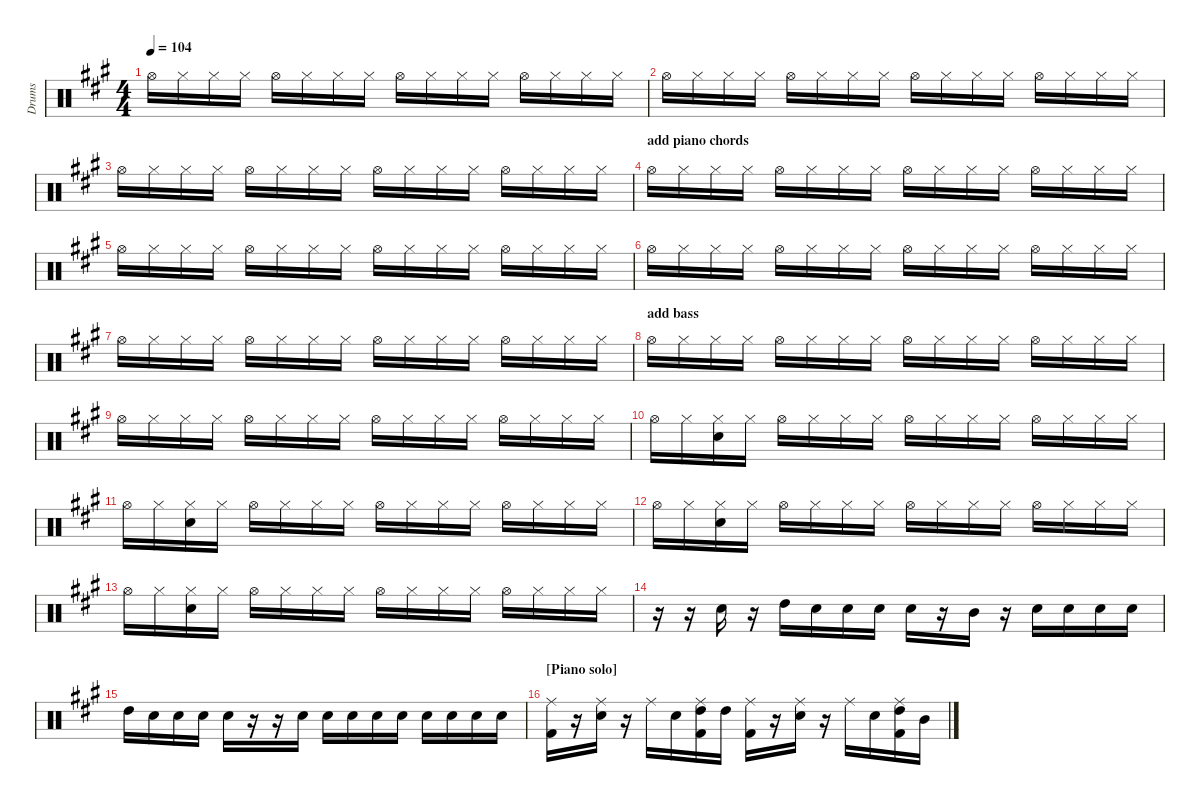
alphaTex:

\hideDynamics
\bracketExtendMode nobrackets
\otherSystemsTrackNameOrientation horizontal
\track ("Drumkit" "Drums") {instrument percussion}
\staff {score}
\articulation defaults
\ts (4 4)
\tempo 104
\clef neutral
\ks a "Hi-Hat (open)"{acc forcenatural}.16{dy f beam Down} "Hi-Hat (closed)"{acc forcenatural}.16{beam Down} "Hi-Hat (closed)"{acc forcenatural}.16{beam Down} "Hi-Hat (closed)"{acc forcenatural}.16{beam Down} "Hi-Hat (open)"{acc forcenatural}.16{beam Down} "Hi-Hat (closed)"{acc forcenatural}.16{beam Down} "Hi-Hat (closed)"{acc forcenatural}.16{beam Down} "Hi-Hat (closed)"{acc forcenatural}.16{beam Down} "Hi-Hat (open)"{acc forcenatural}.16{beam Down} "Hi-Hat (closed)"{acc forcenatural}.16{beam Down} "Hi-Hat (closed)"{acc forcenatural}.16{beam Down} "Hi-Hat (closed)"{acc forcenatural}.16{beam Down} "Hi-Hat (open)"{acc forcenatural}.16{beam Down} "Hi-Hat (closed)"{acc forcenatural}.16{beam Down} "Hi-Hat (closed)"{acc forcenatural}.16{beam Down} "Hi-Hat (closed)"{acc forcenatural}.16{beam Down}
|
"Hi-Hat (open)"{acc forcenatural}.16{beam Down} "Hi-Hat (closed)"{acc forcenatural}.16{beam Down} "Hi-Hat (closed)"{acc forcenatural}.16{beam Down} "Hi-Hat (closed)"{acc forcenatural}.16{beam Down} "Hi-Hat (open)"{acc forcenatural}.16{beam Down} "Hi-Hat (closed)"{acc forcenatural}.16{beam Down} "Hi-Hat (closed)"{acc forcenatural}.16{beam Down} "Hi-Hat (closed)"{acc forcenatural}.16{beam Down} "Hi-Hat (open)"{acc forcenatural}.16{beam Down} "Hi-Hat (closed)"{acc forcenatural}.16{beam Down} "Hi-Hat (closed)"{acc forcenatural}.16{beam Down} "Hi-Hat (closed)"{acc forcenatural}.16{beam Down} "Hi-Hat (open)"{acc forcenatural}.16{beam Down} "Hi-Hat (closed)"{acc forcenatural}.16{beam Down} "Hi-Hat (closed)"{acc forcenatural}.16{beam Down} "Hi-Hat (closed)"{acc forcenatural}.16{beam Down} |
"Hi-Hat (open)"{acc forcenatural}.16{beam Down} "Hi-Hat (closed)"{acc forcenatural}.16{beam Down} "Hi-Hat (closed)"{acc forcenatural}.16{beam Down} "Hi-Hat (closed)"{acc forcenatural}.16{beam Down} "Hi-Hat (open)"{acc forcenatural}.16{beam Down} "Hi-Hat (closed)"{acc forcenatural}.16{beam Down} "Hi-Hat (closed)"{acc forcenatural}.16{beam Down} "Hi-Hat (closed)"{acc forcenatural}.16{beam Down} "Hi-Hat (open)"{acc forcenatural}.16{beam Down} "Hi-Hat (closed)"{acc forcenatural}.16{beam Down} "Hi-Hat (closed)"{acc forcenatural}.16{beam Down} "Hi-Hat (closed)"{acc forcenatural}.16{beam Down} "Hi-Hat (open)"{acc forcenatural}.16{beam Down} "Hi-Hat (closed)"{acc forcenatural}.16{beam Down} "Hi-Hat (closed)"{acc forcenatural}.16{beam Down} "Hi-Hat (closed)"{acc forcenatural}.16{beam Down} |
\section ("" "add piano chords")
"Hi-Hat (open)"{acc forcenatural}.16{beam Down} "Hi-Hat (closed)"{acc forcenatural}.16{beam Down} "Hi-Hat (closed)"{acc forcenatural}.16{beam Down} "Hi-Hat (closed)"{acc forcenatural}.16{beam Down} "Hi-Hat (open)"{acc forcenatural}.16{beam Down} "Hi-Hat (closed)"{acc forcenatural}.16{beam Down} "Hi-Hat (closed)"{acc forcenatural}.16{beam Down} "Hi-Hat (closed)"{acc forcenatural}.16{beam Down} "Hi-Hat (open)"{acc forcenatural}.16{beam Down} "Hi-Hat (closed)"{acc forcenatural}.16{beam Down} "Hi-Hat (closed)"{acc forcenatural}.16{beam Down} "Hi-Hat (closed)"{acc forcenatural}.16{beam Down} "Hi-Hat (open)"{acc forcenatural}.16{beam Down} "Hi-Hat (closed)"{acc forcenatural}.16{beam Down} "Hi-Hat (closed)"{acc forcenatural}.16{beam Down} "Hi-Hat (closed)"{acc forcenatural}.16{beam Down} |
"Hi-Hat (open)"{acc forcenatural}.16{beam Down} "Hi-Hat (closed)"{acc forcenatural}.16{beam Down} "Hi-Hat (closed)"{acc forcenatural}.16{beam Down} "Hi-Hat (closed)"{acc forcenatural}.16{beam Down} "Hi-Hat (open)"{acc forcenatural}.16{beam Down} "Hi-Hat (closed)"{acc forcenatural}.16{beam Down} "Hi-Hat (closed)"{acc forcenatural}.16{beam Down} "Hi-Hat (closed)"{acc forcenatural}.16{beam Down} "Hi-Hat (open)"{acc forcenatural}.16{beam Down} "Hi-Hat (closed)"{acc forcenatural}.16{beam Down} "Hi-Hat (closed)"{acc forcenatural}.16{beam Down} "Hi-Hat (closed)"{acc forcenatural}.16{beam Down} "Hi-Hat (open)"{acc forcenatural}.16{beam Down} "Hi-Hat (closed)"{acc forcenatural}.16{beam Down} "Hi-Hat (closed)"{acc forcenatural}.16{beam Down} "Hi-Hat (closed)"{acc forcenatural}.16{beam Down} |
"Hi-Hat (open)"{acc forcenatural}.16{beam Down} "Hi-Hat (closed)"{acc forcenatural}.16{beam Down} "Hi-Hat (closed)"{acc forcenatural}.16{beam Down} "Hi-Hat (closed)"{acc forcenatural}.16{beam Down} "Hi-Hat (open)"{acc forcenatural}.16{beam Down} "Hi-Hat (closed)"{acc forcenatural}.16{beam Down} "Hi-Hat (closed)"{acc forcenatural}.16{beam Down} "Hi-Hat (closed)"{acc forcenatural}.16{beam Down} "Hi-Hat (open)"{acc forcenatural}.16{beam Down} "Hi-Hat (closed)"{acc forcenatural}.16{beam Down} "Hi-Hat (closed)"{acc forcenatural}.16{beam Down} "Hi-Hat (closed)"{acc forcenatural}.16{beam Down} "Hi-Hat (open)"{acc forcenatural}.16{beam Down} "Hi-Hat (closed)"{acc forcenatural}.16{beam Down} "Hi-Hat (closed)"{acc forcenatural}.16{beam Down} "Hi-Hat (closed)"{acc forcenatural}.16{beam Down} |
"Hi-Hat (open)"{acc forcenatural}.16{beam Down} "Hi-Hat (closed)"{acc forcenatural}.16{beam Down} "Hi-Hat (closed)"{acc forcenatural}.16{beam Down} "Hi-Hat (closed)"{acc forcenatural}.16{beam Down} "Hi-Hat (open)"{acc forcenatural}.16{beam Down} "Hi-Hat (closed)"{acc forcenatural}.16{beam Down} "Hi-Hat (closed)"{acc forcenatural}.16{beam Down} "Hi-Hat (closed)"{acc forcenatural}.16{beam Down} "Hi-Hat (open)"{acc forcenatural}.16{beam Down} "Hi-Hat (closed)"{acc forcenatural}.16{beam Down} "Hi-Hat (closed)"{acc forcenatural}.16{beam Down} "Hi-Hat (closed)"{acc forcenatural}.16{beam Down} "Hi-Hat (open)"{acc forcenatural}.16{beam Down} "Hi-Hat (closed)"{acc forcenatural}.16{beam Down} "Hi-Hat (closed)"{acc forcenatural}.16{beam Down} "Hi-Hat (closed)"{acc forcenatural}.16{beam Down} |
\section ("" "add bass")
"Hi-Hat (open)"{acc forcenatural}.16{beam Down} "Hi-Hat (closed)"{acc forcenatural}.16{beam Down} "Hi-Hat (closed)"{acc forcenatural}.16{beam Down} "Hi-Hat (closed)"{acc forcenatural}.16{beam Down} "Hi-Hat (open)"{acc forcenatural}.16{beam Down} "Hi-Hat (closed)"{acc forcenatural}.16{beam Down} "Hi-Hat (closed)"{acc forcenatural}.16{beam Down} "Hi-Hat (closed)"{acc forcenatural}.16{beam Down} "Hi-Hat (open)"{acc forcenatural}.16{beam Down} "Hi-Hat (closed)"{acc forcenatural}.16{beam Down} "Hi-Hat (closed)"{acc forcenatural}.16{beam Down} "Hi-Hat (closed)"{acc forcenatural}.16{beam Down} "Hi-Hat (open)"{acc forcenatural}.16{beam Down} "Hi-Hat (closed)"{acc forcenatural}.16{beam Down} "Hi-Hat (closed)"{acc forcenatural}.16{beam Down} "Hi-Hat (closed)"{acc forcenatural}.16{beam Down} |
"Hi-Hat (open)"{acc forcenatural}.16{beam Down} "Hi-Hat (closed)"{acc forcenatural}.16{beam Down} "Hi-Hat (closed)"{acc forcenatural}.16{beam Down} "Hi-Hat (closed)"{acc forcenatural}.16{beam Down} "Hi-Hat (open)"{acc forcenatural}.16{beam Down} "Hi-Hat (closed)"{acc forcenatural}.16{beam Down} "Hi-Hat (closed)"{acc forcenatural}.16{beam Down} "Hi-Hat (closed)"{acc forcenatural}.16{beam Down} "Hi-Hat (open)"{acc forcenatural}.16{beam Down} "Hi-Hat (closed)"{acc forcenatural}.16{beam Down} "Hi-Hat (closed)"{acc forcenatural}.16{beam Down} "Hi-Hat (closed)"{acc forcenatural}.16{beam Down} "Hi-Hat (open)"{acc forcenatural}.16{beam Down} "Hi-Hat (closed)"{acc forcenatural}.16{beam Down} "Hi-Hat (closed)"{acc forcenatural}.16{beam Down} "Hi-Hat (closed)"{acc forcenatural}.16{beam Down} |
"Hi-Hat (open)"{acc forcenatural}.16{beam Down} "Hi-Hat (closed)"{acc forcenatural}.16{beam Down} ("Hi-Hat (closed)"{acc forcenatural} "Snare (hit) 2"{acc forcenatural}).16{beam Down} "Hi-Hat (closed)"{acc forcenatural}.16{beam Down} "Hi-Hat (open)"{acc forcenatural}.16{beam Down} "Hi-Hat (closed)"{acc forcenatural}.16{beam Down} "Hi-Hat (closed)"{acc forcenatural}.16{beam Down} "Hi-Hat (closed)"{acc forcenatural}.16{beam Down} "Hi-Hat (open)"{acc forcenatural}.16{beam Down} "Hi-Hat (closed)"{acc forcenatural}.16{beam Down} "Hi-Hat (closed)"{acc forcenatural}.16{beam Down} "Hi-Hat (closed)"{acc forcenatural}.16{beam Down} "Hi-Hat (open)"{acc forcenatural}.16{beam Down} "Hi-Hat (closed)"{acc forcenatural}.16{beam Down} "Hi-Hat (closed)"{acc forcenatural}.16{beam Down} "Hi-Hat (closed)"{acc forcenatural}.16{beam Down} |
"Hi-Hat (open)"{acc forcenatural}.16{beam Down} "Hi-Hat (closed)"{acc forcenatural}.16{beam Down} ("Hi-Hat (closed)"{acc forcenatural} "Snare (hit) 2"{acc forcenatural}).16{beam Down} "Hi-Hat (closed)"{acc forcenatural}.16{beam Down} "Hi-Hat (open)"{acc forcenatural}.16{beam Down} "Hi-Hat (closed)"{acc forcenatural}.16{beam Down} "Hi-Hat (closed)"{acc forcenatural}.16{beam Down} "Hi-Hat (closed)"{acc forcenatural}.16{beam Down} "Hi-Hat (open)"{acc forcenatural}.16{beam Down} "Hi-Hat (closed)"{acc forcenatural}.16{beam Down} "Hi-Hat (closed)"{acc forcenatural}.16{beam Down} "Hi-Hat (closed)"{acc forcenatural}.16{beam Down} "Hi-Hat (open)"{acc forcenatural}.16{beam Down} "Hi-Hat (closed)"{acc forcenatural}.16{beam Down} "Hi-Hat (closed)"{acc forcenatural}.16{beam Down} "Hi-Hat (closed)"{acc forcenatural}.16{beam Down} |
"Hi-Hat (open)"{acc forcenatural}.16{beam Down} "Hi-Hat (closed)"{acc forcenatural}.16{beam Down} ("Hi-Hat (closed)"{acc forcenatural} "Snare (hit) 2"{acc forcenatural}).16{beam Down} "Hi-Hat (closed)"{acc forcenatural}.16{beam Down} "Hi-Hat (open)"{acc forcenatural}.16{beam Down} "Hi-Hat (closed)"{acc forcenatural}.16{beam Down} "Hi-Hat (closed)"{acc forcenatural}.16{beam Down} "Hi-Hat (closed)"{acc forcenatural}.16{beam Down} "Hi-Hat (open)"{acc forcenatural}.16{beam Down} "Hi-Hat (closed)"{acc forcenatural}.16{beam Down} "Hi-Hat (closed)"{acc forcenatural}.16{beam Down} "Hi-Hat (closed)"{acc forcenatural}.16{beam Down} "Hi-Hat (open)"{acc forcenatural}.16{beam Down} "Hi-Hat (closed)"{acc forcenatural}.16{beam Down} "Hi-Hat (closed)"{acc forcenatural}.16{beam Down} "Hi-Hat (closed)"{acc forcenatural}.16{beam Down} |
"Hi-Hat (open)"{acc forcenatural}.16{beam Down} "Hi-Hat (closed)"{acc forcenatural}.16{beam Down} ("Hi-Hat (closed)"{acc forcenatural} "Snare (hit) 2"{acc forcenatural}).16{beam Down} "Hi-Hat (closed)"{acc forcenatural}.16{beam Down} "Hi-Hat (open)"{acc forcenatural}.16{beam Down} "Hi-Hat (closed)"{acc forcenatural}.16{beam Down} "Hi-Hat (closed)"{acc forcenatural}.16{beam Down} "Hi-Hat (closed)"{acc forcenatural}.16{beam Down} "Hi-Hat (open)"{acc forcenatural}.16{beam Down} "Hi-Hat (closed)"{acc forcenatural}.16{beam Down} "Hi-Hat (closed)"{acc forcenatural}.16{beam Down} "Hi-Hat (closed)"{acc forcenatural}.16{beam Down} "Hi-Hat (open)"{acc forcenatural}.16{beam Down} "Hi-Hat (closed)"{acc forcenatural}.16{beam Down} "Hi-Hat (closed)"{acc forcenatural}.16{beam Down} "Hi-Hat (closed)"{acc forcenatural}.16{beam Down} |
r.16{beam Down} r.16{beam Down} "Snare (hit) 2"{acc forcenatural}.16{beam Down} r.16{beam Down} "High Tom (hit)"{acc forcenatural}.16{beam Down} "Snare (hit) 2"{acc forcenatural}.16{beam Down} "Snare (hit) 2"{acc forcenatural}.16{beam Down} "Snare (hit) 2"{acc forcenatural}.16{beam Down} "Snare (hit) 2"{acc forcenatural}.16{beam Down} r.16{beam Down} "Mid Tom (hit)"{acc forcenatural}.16{beam Down} r.16{beam Down} "Snare (hit) 2"{acc forcenatural}.16{beam Down} "Snare (hit) 2"{acc forcenatural}.16{beam Down} "Snare (hit) 2"{acc forcenatural}.16{beam Down} "Snare (hit) 2"{acc forcenatural}.16{beam Down} |
"High Tom (hit)"{acc forcenatural}.16{beam Down} "Snare (hit) 2"{acc forcenatural}.16{beam Down} "Snare (hit) 2"{acc forcenatural}.16{beam Down} "Snare (hit) 2"{acc forcenatural}.16{beam Down} "Snare (hit) 2"{acc forcenatural}.16{beam Down} r.16{beam Down} r.16{beam Down} "Snare (hit) 2"{acc forcenatural}.16{beam Down} "Snare (hit) 2"{acc forcenatural}.16{beam Down} "Snare (hit) 2"{acc forcenatural}.16{beam Down} "Snare (hit) 2"{acc forcenatural}.16{beam Down} "Snare (hit) 2"{acc forcenatural}.16{beam Down} "Snare (hit) 2"{acc forcenatural}.16{beam Down} "Snare (hit) 2"{acc forcenatural}.16{beam Down} "Snare (hit) 2"{acc forcenatural}.16{beam Down} "Snare (hit) 2"{acc forcenatural}.16{beam Down} |
\section ("" "[Piano solo]")
("Ride (middle)"{acc forcenatural} "Kick (hit) 2"{acc forcenatural}).16{beam Down} r.16{beam Down} ("Ride (middle)"{acc forcenatural} "Snare (hit) 2"{acc forcenatural}).16{beam Down} r.16{beam Down} "Ride (middle)"{acc forcenatural}.16{beam Down} "Snare (hit) 2"{acc forcenatural}.16{beam Down} ("Ride (middle)"{acc forcenatural} "High Tom (hit)"{acc forcenatural} "Kick (hit) 2"{acc forcenatural}).16{beam Down} "High Tom (hit)"{acc forcenatural}.16{beam Down} ("Ride (middle)"{acc forcenatural} "Kick (hit) 2"{acc forcenatural}).16{beam Down} r.16{beam Down} ("Ride (middle)"{acc forcenatural} "Snare (hit) 2"{acc forcenatural}).16{beam Down} r.16{beam Down} "Ride (middle)"{acc forcenatural}.16{beam Down} "Snare (hit) 2"{acc forcenatural}.16{beam Down} ("Ride (middle)"{acc forcenatural} "High Tom (hit)"{acc forcenatural} "Kick (hit) 2"{acc forcenatural}).16{beam Down} "Mid Tom (hit)"{acc forcenatural}.16{beam Down}
